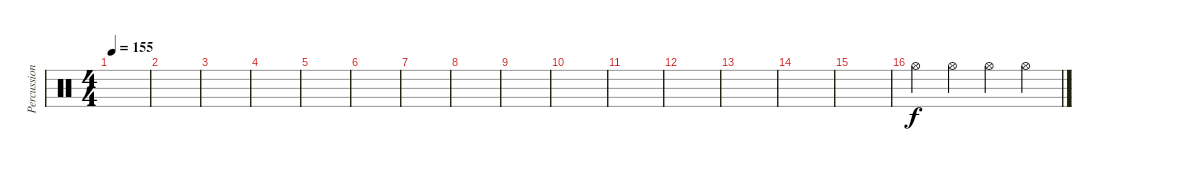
\track ("Percussion" "Percussion") {instrument percussion}
\staff {score}
\articulation defaults
\ts (4 4)
\tempo 155
\clef neutral
\ks c
|
|
|
|
|
|
|
|
|
|
|
|
|
|
|
"Hi-Hat (open)".4 "Hi-Hat (open)".4 "Hi-Hat (open)".4 "Hi-Hat (open)".4
